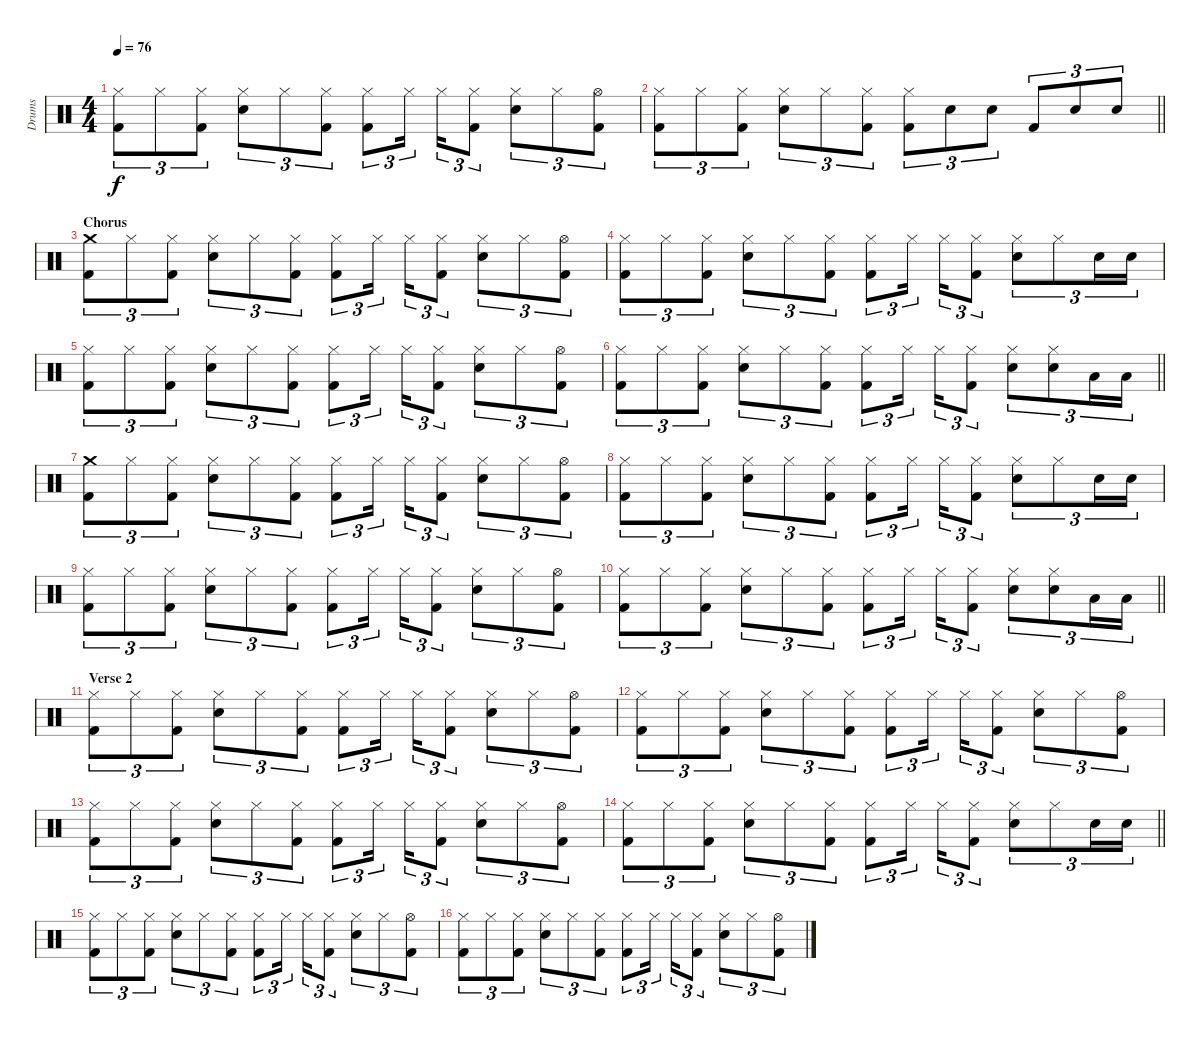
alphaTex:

\track ("Drums" "Drums") {instrument percussion}
\staff {score}
\articulation defaults
\ts (4 4)
\tempo 76
\clef neutral
\ks c
("Hi-Hat (closed)" "Kick (hit) 2").8{tu (3 2) dy f} "Hi-Hat (closed)".8{tu (3 2)} ("Hi-Hat (closed)" "Kick (hit) 2").8{tu (3 2)} ("Hi-Hat (closed)" "Snare (hit) 2").8{tu (3 2)} "Hi-Hat (closed)".8{tu (3 2)} ("Hi-Hat (closed)" "Kick (hit) 2").8{tu (3 2)} ("Hi-Hat (closed)" "Kick (hit) 2").8{tu (3 2)} "Hi-Hat (closed)".16{tu (3 2) beam splitsecondary} "Hi-Hat (closed)".16{tu (3 2)} ("Hi-Hat (closed)" "Kick (hit) 2").8{tu (3 2)} ("Hi-Hat (closed)" "Snare (hit) 2").8{tu (3 2)} "Hi-Hat (closed)".8{tu (3 2)} ("Hi-Hat (open)" "Kick (hit) 2").8{tu (3 2)} |
\barLineRight lightlight
("Hi-Hat (closed)" "Kick (hit) 2").8{tu (3 2)} "Hi-Hat (closed)".8{tu (3 2)} ("Hi-Hat (closed)" "Kick (hit) 2").8{tu (3 2)} ("Hi-Hat (closed)" "Snare (hit) 2").8{tu (3 2)} "Hi-Hat (closed)".8{tu (3 2)} ("Hi-Hat (closed)" "Kick (hit) 2").8{tu (3 2)} ("Hi-Hat (closed)" "Kick (hit) 2").8{tu (3 2)} "Snare (hit) 2".8{tu (3 2)} "Snare (hit) 2".8{tu (3 2)} "Kick (hit) 2".8{tu (3 2)} "Snare (hit) 2".8{tu (3 2)} "Snare (hit) 2".8{tu (3 2)} |
\section ("" "Chorus")
("Crash medium (hit)" "Kick (hit) 2").8{tu (3 2)} "Hi-Hat (closed)".8{tu (3 2)} ("Hi-Hat (closed)" "Kick (hit) 2").8{tu (3 2)} ("Hi-Hat (closed)" "Snare (hit) 2").8{tu (3 2)} "Hi-Hat (closed)".8{tu (3 2)} ("Hi-Hat (closed)" "Kick (hit) 2").8{tu (3 2)} ("Hi-Hat (closed)" "Kick (hit) 2").8{tu (3 2)} "Hi-Hat (closed)".16{tu (3 2) beam splitsecondary} "Hi-Hat (closed)".16{tu (3 2)} ("Hi-Hat (closed)" "Kick (hit) 2").8{tu (3 2)} ("Hi-Hat (closed)" "Snare (hit) 2").8{tu (3 2)} "Hi-Hat (closed)".8{tu (3 2)} ("Hi-Hat (open)" "Kick (hit) 2").8{tu (3 2)} |
("Hi-Hat (closed)" "Kick (hit) 2").8{tu (3 2)} "Hi-Hat (closed)".8{tu (3 2)} ("Hi-Hat (closed)" "Kick (hit) 2").8{tu (3 2)} ("Hi-Hat (closed)" "Snare (hit) 2").8{tu (3 2)} "Hi-Hat (closed)".8{tu (3 2)} ("Hi-Hat (closed)" "Kick (hit) 2").8{tu (3 2)} ("Hi-Hat (closed)" "Kick (hit) 2").8{tu (3 2)} "Hi-Hat (closed)".16{tu (3 2) beam splitsecondary} "Hi-Hat (closed)".16{tu (3 2)} ("Hi-Hat (closed)" "Kick (hit) 2").8{tu (3 2)} ("Hi-Hat (closed)" "Snare (hit) 2").8{tu (3 2)} "Hi-Hat (closed)".8{tu (3 2)} "Snare (hit) 2".16{tu (3 2)} "Snare (hit) 2".16{tu (3 2)} |
("Hi-Hat (closed)" "Kick (hit) 2").8{tu (3 2)} "Hi-Hat (closed)".8{tu (3 2)} ("Hi-Hat (closed)" "Kick (hit) 2").8{tu (3 2)} ("Hi-Hat (closed)" "Snare (hit) 2").8{tu (3 2)} "Hi-Hat (closed)".8{tu (3 2)} ("Hi-Hat (closed)" "Kick (hit) 2").8{tu (3 2)} ("Hi-Hat (closed)" "Kick (hit) 2").8{tu (3 2)} "Hi-Hat (closed)".16{tu (3 2) beam splitsecondary} "Hi-Hat (closed)".16{tu (3 2)} ("Hi-Hat (closed)" "Kick (hit) 2").8{tu (3 2)} ("Hi-Hat (closed)" "Snare (hit) 2").8{tu (3 2)} "Hi-Hat (closed)".8{tu (3 2)} ("Hi-Hat (open)" "Kick (hit) 2").8{tu (3 2)} |
\barLineRight lightlight
("Hi-Hat (closed)" "Kick (hit) 2").8{tu (3 2)} "Hi-Hat (closed)".8{tu (3 2)} ("Hi-Hat (closed)" "Kick (hit) 2").8{tu (3 2)} ("Hi-Hat (closed)" "Snare (hit) 2").8{tu (3 2)} "Hi-Hat (closed)".8{tu (3 2)} ("Hi-Hat (closed)" "Kick (hit) 2").8{tu (3 2)} ("Hi-Hat (closed)" "Kick (hit) 2").8{tu (3 2)} "Hi-Hat (closed)".16{tu (3 2) beam splitsecondary} "Hi-Hat (closed)".16{tu (3 2)} ("Hi-Hat (closed)" "Kick (hit) 2").8{tu (3 2)} ("Hi-Hat (closed)" "Snare (hit) 2").8{tu (3 2)} ("Hi-Hat (closed)" "Snare (hit) 2").8{tu (3 2)} "Low Tom (hit)".16{tu (3 2)} "Low Tom (hit)".16{tu (3 2)} |
("Crash medium (hit)" "Kick (hit) 2").8{tu (3 2)} "Hi-Hat (closed)".8{tu (3 2)} ("Hi-Hat (closed)" "Kick (hit) 2").8{tu (3 2)} ("Hi-Hat (closed)" "Snare (hit) 2").8{tu (3 2)} "Hi-Hat (closed)".8{tu (3 2)} ("Hi-Hat (closed)" "Kick (hit) 2").8{tu (3 2)} ("Hi-Hat (closed)" "Kick (hit) 2").8{tu (3 2)} "Hi-Hat (closed)".16{tu (3 2) beam splitsecondary} "Hi-Hat (closed)".16{tu (3 2)} ("Hi-Hat (closed)" "Kick (hit) 2").8{tu (3 2)} ("Hi-Hat (closed)" "Snare (hit) 2").8{tu (3 2)} "Hi-Hat (closed)".8{tu (3 2)} ("Hi-Hat (open)" "Kick (hit) 2").8{tu (3 2)} |
("Hi-Hat (closed)" "Kick (hit) 2").8{tu (3 2)} "Hi-Hat (closed)".8{tu (3 2)} ("Hi-Hat (closed)" "Kick (hit) 2").8{tu (3 2)} ("Hi-Hat (closed)" "Snare (hit) 2").8{tu (3 2)} "Hi-Hat (closed)".8{tu (3 2)} ("Hi-Hat (closed)" "Kick (hit) 2").8{tu (3 2)} ("Hi-Hat (closed)" "Kick (hit) 2").8{tu (3 2)} "Hi-Hat (closed)".16{tu (3 2) beam splitsecondary} "Hi-Hat (closed)".16{tu (3 2)} ("Hi-Hat (closed)" "Kick (hit) 2").8{tu (3 2)} ("Hi-Hat (closed)" "Snare (hit) 2").8{tu (3 2)} "Hi-Hat (closed)".8{tu (3 2)} "Snare (hit) 2".16{tu (3 2)} "Snare (hit) 2".16{tu (3 2)} |
("Hi-Hat (closed)" "Kick (hit) 2").8{tu (3 2)} "Hi-Hat (closed)".8{tu (3 2)} ("Hi-Hat (closed)" "Kick (hit) 2").8{tu (3 2)} ("Hi-Hat (closed)" "Snare (hit) 2").8{tu (3 2)} "Hi-Hat (closed)".8{tu (3 2)} ("Hi-Hat (closed)" "Kick (hit) 2").8{tu (3 2)} ("Hi-Hat (closed)" "Kick (hit) 2").8{tu (3 2)} "Hi-Hat (closed)".16{tu (3 2) beam splitsecondary} "Hi-Hat (closed)".16{tu (3 2)} ("Hi-Hat (closed)" "Kick (hit) 2").8{tu (3 2)} ("Hi-Hat (closed)" "Snare (hit) 2").8{tu (3 2)} "Hi-Hat (closed)".8{tu (3 2)} ("Hi-Hat (open)" "Kick (hit) 2").8{tu (3 2)} |
\barLineRight lightlight
("Hi-Hat (closed)" "Kick (hit) 2").8{tu (3 2)} "Hi-Hat (closed)".8{tu (3 2)} ("Hi-Hat (closed)" "Kick (hit) 2").8{tu (3 2)} ("Hi-Hat (closed)" "Snare (hit) 2").8{tu (3 2)} "Hi-Hat (closed)".8{tu (3 2)} ("Hi-Hat (closed)" "Kick (hit) 2").8{tu (3 2)} ("Hi-Hat (closed)" "Kick (hit) 2").8{tu (3 2)} "Hi-Hat (closed)".16{tu (3 2) beam splitsecondary} "Hi-Hat (closed)".16{tu (3 2)} ("Hi-Hat (closed)" "Kick (hit) 2").8{tu (3 2)} ("Hi-Hat (closed)" "Snare (hit) 2").8{tu (3 2)} ("Hi-Hat (closed)" "Snare (hit) 2").8{tu (3 2)} "Low Tom (hit)".16{tu (3 2)} "Low Tom (hit)".16{tu (3 2)} |
\section ("" "Verse 2")
("Hi-Hat (closed)" "Kick (hit) 2").8{tu (3 2)} "Hi-Hat (closed)".8{tu (3 2)} ("Hi-Hat (closed)" "Kick (hit) 2").8{tu (3 2)} ("Hi-Hat (closed)" "Snare (hit) 2").8{tu (3 2)} "Hi-Hat (closed)".8{tu (3 2)} ("Hi-Hat (closed)" "Kick (hit) 2").8{tu (3 2)} ("Hi-Hat (closed)" "Kick (hit) 2").8{tu (3 2)} "Hi-Hat (closed)".16{tu (3 2) beam splitsecondary} "Hi-Hat (closed)".16{tu (3 2)} ("Hi-Hat (closed)" "Kick (hit) 2").8{tu (3 2)} ("Hi-Hat (closed)" "Snare (hit) 2").8{tu (3 2)} "Hi-Hat (closed)".8{tu (3 2)} ("Hi-Hat (open)" "Kick (hit) 2").8{tu (3 2)} |
("Hi-Hat (closed)" "Kick (hit) 2").8{tu (3 2)} "Hi-Hat (closed)".8{tu (3 2)} ("Hi-Hat (closed)" "Kick (hit) 2").8{tu (3 2)} ("Hi-Hat (closed)" "Snare (hit) 2").8{tu (3 2)} "Hi-Hat (closed)".8{tu (3 2)} ("Hi-Hat (closed)" "Kick (hit) 2").8{tu (3 2)} ("Hi-Hat (closed)" "Kick (hit) 2").8{tu (3 2)} "Hi-Hat (closed)".16{tu (3 2) beam splitsecondary} "Hi-Hat (closed)".16{tu (3 2)} ("Hi-Hat (closed)" "Kick (hit) 2").8{tu (3 2)} ("Hi-Hat (closed)" "Snare (hit) 2").8{tu (3 2)} "Hi-Hat (closed)".8{tu (3 2)} ("Hi-Hat (open)" "Kick (hit) 2").8{tu (3 2)} |
("Hi-Hat (closed)" "Kick (hit) 2").8{tu (3 2)} "Hi-Hat (closed)".8{tu (3 2)} ("Hi-Hat (closed)" "Kick (hit) 2").8{tu (3 2)} ("Hi-Hat (closed)" "Snare (hit) 2").8{tu (3 2)} "Hi-Hat (closed)".8{tu (3 2)} ("Hi-Hat (closed)" "Kick (hit) 2").8{tu (3 2)} ("Hi-Hat (closed)" "Kick (hit) 2").8{tu (3 2)} "Hi-Hat (closed)".16{tu (3 2) beam splitsecondary} "Hi-Hat (closed)".16{tu (3 2)} ("Hi-Hat (closed)" "Kick (hit) 2").8{tu (3 2)} ("Hi-Hat (closed)" "Snare (hit) 2").8{tu (3 2)} "Hi-Hat (closed)".8{tu (3 2)} ("Hi-Hat (open)" "Kick (hit) 2").8{tu (3 2)} |
\barLineRight lightlight
("Hi-Hat (closed)" "Kick (hit) 2").8{tu (3 2)} "Hi-Hat (closed)".8{tu (3 2)} ("Hi-Hat (closed)" "Kick (hit) 2").8{tu (3 2)} ("Hi-Hat (closed)" "Snare (hit) 2").8{tu (3 2)} "Hi-Hat (closed)".8{tu (3 2)} ("Hi-Hat (closed)" "Kick (hit) 2").8{tu (3 2)} ("Hi-Hat (closed)" "Kick (hit) 2").8{tu (3 2)} "Hi-Hat (closed)".16{tu (3 2) beam splitsecondary} "Hi-Hat (closed)".16{tu (3 2)} ("Hi-Hat (closed)" "Kick (hit) 2").8{tu (3 2)} ("Hi-Hat (closed)" "Snare (hit) 2").8{tu (3 2)} "Hi-Hat (closed)".8{tu (3 2)} "Snare (hit) 2".16{tu (3 2)} "Snare (hit) 2".16{tu (3 2)} |
("Hi-Hat (closed)" "Kick (hit) 2").8{tu (3 2)} "Hi-Hat (closed)".8{tu (3 2)} ("Hi-Hat (closed)" "Kick (hit) 2").8{tu (3 2)} ("Hi-Hat (closed)" "Snare (hit) 2").8{tu (3 2)} "Hi-Hat (closed)".8{tu (3 2)} ("Hi-Hat (closed)" "Kick (hit) 2").8{tu (3 2)} ("Hi-Hat (closed)" "Kick (hit) 2").8{tu (3 2)} "Hi-Hat (closed)".16{tu (3 2) beam splitsecondary} "Hi-Hat (closed)".16{tu (3 2)} ("Hi-Hat (closed)" "Kick (hit) 2").8{tu (3 2)} ("Hi-Hat (closed)" "Snare (hit) 2").8{tu (3 2)} "Hi-Hat (closed)".8{tu (3 2)} ("Hi-Hat (open)" "Kick (hit) 2").8{tu (3 2)} |
("Hi-Hat (closed)" "Kick (hit) 2").8{tu (3 2)} "Hi-Hat (closed)".8{tu (3 2)} ("Hi-Hat (closed)" "Kick (hit) 2").8{tu (3 2)} ("Hi-Hat (closed)" "Snare (hit) 2").8{tu (3 2)} "Hi-Hat (closed)".8{tu (3 2)} ("Hi-Hat (closed)" "Kick (hit) 2").8{tu (3 2)} ("Hi-Hat (closed)" "Kick (hit) 2").8{tu (3 2)} "Hi-Hat (closed)".16{tu (3 2) beam splitsecondary} "Hi-Hat (closed)".16{tu (3 2)} ("Hi-Hat (closed)" "Kick (hit) 2").8{tu (3 2)} ("Hi-Hat (closed)" "Snare (hit) 2").8{tu (3 2)} "Hi-Hat (closed)".8{tu (3 2)} ("Hi-Hat (open)" "Kick (hit) 2").8{tu (3 2)}
